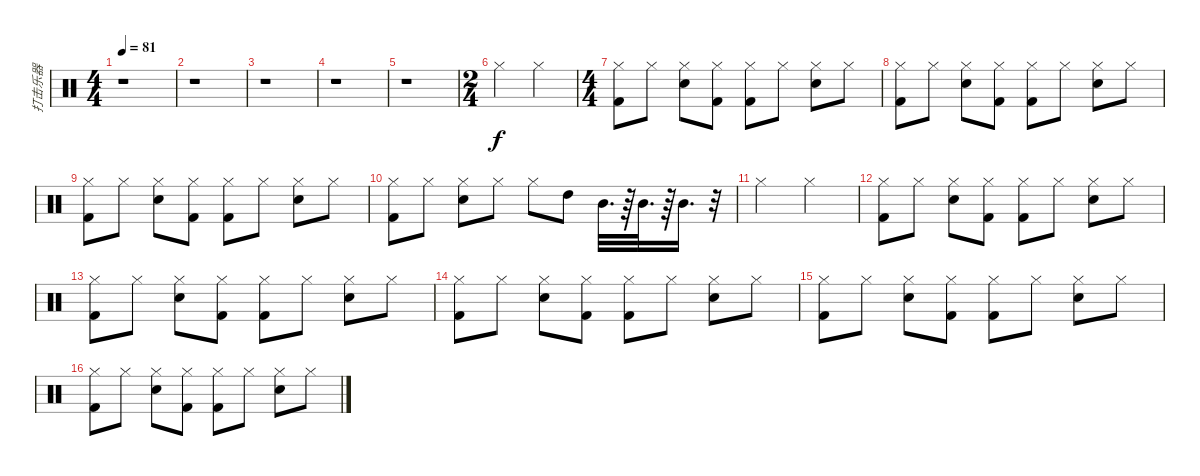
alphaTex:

\track ("打击乐器" "打击乐器") {instrument percussion}
\staff {score}
\articulation defaults
\ts (4 4)
\tempo 81
\clef neutral
\ks c
r.1{dy f} |
r.1 |
r.1 |
r.1 |
r.1 |
\ts (2 4)
"Hi-Hat (closed)".4 "Hi-Hat (closed)".4 |
\ts (4 4)
("Kick (hit) 2" "Hi-Hat (closed)").8 "Hi-Hat (closed)".8 ("Hi-Hat (closed)" "Snare (hit) 2").8 ("Hi-Hat (closed)" "Kick (hit) 2").8 ("Kick (hit) 2" "Hi-Hat (closed)").8 "Hi-Hat (closed)".8 ("Hi-Hat (closed)" "Snare (hit) 2").8 "Hi-Hat (closed)".8 |
("Kick (hit) 2" "Hi-Hat (closed)").8 "Hi-Hat (closed)".8 ("Hi-Hat (closed)" "Snare (hit) 2").8 ("Hi-Hat (closed)" "Kick (hit) 2").8 ("Kick (hit) 2" "Hi-Hat (closed)").8 "Hi-Hat (closed)".8 ("Hi-Hat (closed)" "Snare (hit) 2").8 "Hi-Hat (closed)".8 |
("Kick (hit) 2" "Hi-Hat (closed)").8 "Hi-Hat (closed)".8 ("Hi-Hat (closed)" "Snare (hit) 2").8 ("Hi-Hat (closed)" "Kick (hit) 2").8 ("Kick (hit) 2" "Hi-Hat (closed)").8 "Hi-Hat (closed)".8 ("Hi-Hat (closed)" "Snare (hit) 2").8 "Hi-Hat (closed)".8 |
("Hi-Hat (closed)" "Kick (hit) 2").8 "Hi-Hat (closed)".8 ("Snare (hit) 2" "Hi-Hat (closed)").8 "Hi-Hat (closed)".8 "Hi-Hat (closed)".8 "High Tom (hit)".8 "Mid Tom (hit)".32{d} r.64 "Mid Tom (hit)".32{d} r.64 "Mid Tom (hit)".16{d} r.32 |
"Hi-Hat (closed)".2 "Hi-Hat (closed)".2 |
("Kick (hit) 2" "Hi-Hat (closed)").8 "Hi-Hat (closed)".8 ("Hi-Hat (closed)" "Snare (hit) 2").8 ("Hi-Hat (closed)" "Kick (hit) 2").8 ("Kick (hit) 2" "Hi-Hat (closed)").8 "Hi-Hat (closed)".8 ("Hi-Hat (closed)" "Snare (hit) 2").8 "Hi-Hat (closed)".8 |
("Kick (hit) 2" "Hi-Hat (closed)").8 "Hi-Hat (closed)".8 ("Hi-Hat (closed)" "Snare (hit) 2").8 ("Hi-Hat (closed)" "Kick (hit) 2").8 ("Kick (hit) 2" "Hi-Hat (closed)").8 "Hi-Hat (closed)".8 ("Hi-Hat (closed)" "Snare (hit) 2").8 "Hi-Hat (closed)".8 |
("Kick (hit) 2" "Hi-Hat (closed)").8 "Hi-Hat (closed)".8 ("Hi-Hat (closed)" "Snare (hit) 2").8 ("Hi-Hat (closed)" "Kick (hit) 2").8 ("Kick (hit) 2" "Hi-Hat (closed)").8 "Hi-Hat (closed)".8 ("Hi-Hat (closed)" "Snare (hit) 2").8 "Hi-Hat (closed)".8 |
("Kick (hit) 2" "Hi-Hat (closed)").8 "Hi-Hat (closed)".8 ("Hi-Hat (closed)" "Snare (hit) 2").8 ("Hi-Hat (closed)" "Kick (hit) 2").8 ("Kick (hit) 2" "Hi-Hat (closed)").8 "Hi-Hat (closed)".8 ("Hi-Hat (closed)" "Snare (hit) 2").8 "Hi-Hat (closed)".8 |
("Kick (hit) 2" "Hi-Hat (closed)").8 "Hi-Hat (closed)".8 ("Hi-Hat (closed)" "Snare (hit) 2").8 ("Hi-Hat (closed)" "Kick (hit) 2").8 ("Kick (hit) 2" "Hi-Hat (closed)").8 "Hi-Hat (closed)".8 ("Hi-Hat (closed)" "Snare (hit) 2").8 "Hi-Hat (closed)".8
